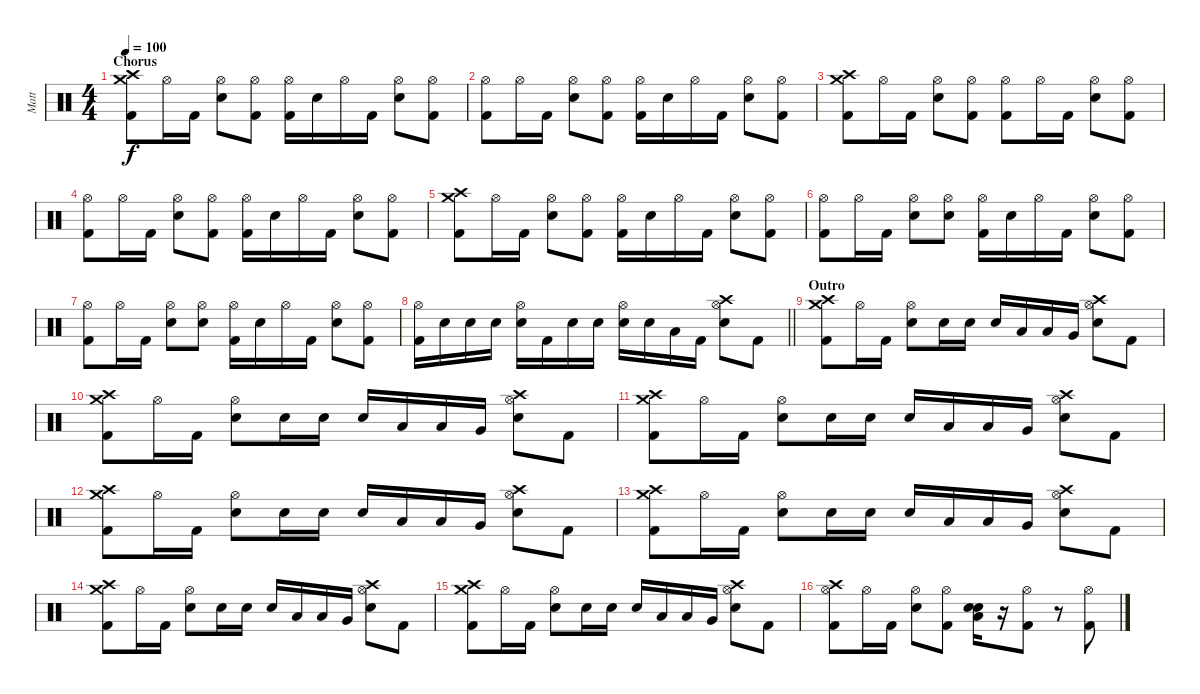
\track ("Matt" "Matt") {instrument percussion}
\staff {score}
\articulation defaults
\ts (4 4)
\section ("" "Chorus")
\tempo 100
\clef neutral
\ks c
("Crash medium (hit)" "Crash high (hit)" "Kick (hit) 2").8{dy f} "Hi-Hat (open)".16 "Kick (hit) 2".16 ("Hi-Hat (open)" "Snare (hit) 2").8 ("Hi-Hat (open)" "Kick (hit) 2").8 ("Hi-Hat (open)" "Kick (hit) 2").16 "Snare (hit) 2".16 "Hi-Hat (open)".16 "Kick (hit) 2".16 ("Hi-Hat (open)" "Snare (hit) 2").8 ("Hi-Hat (open)" "Kick (hit) 2").8 |
("Hi-Hat (open)" "Kick (hit) 2").8 "Hi-Hat (open)".16 "Kick (hit) 2".16 ("Hi-Hat (open)" "Snare (hit) 2").8 ("Hi-Hat (open)" "Kick (hit) 2").8 ("Hi-Hat (open)" "Kick (hit) 2").16 "Snare (hit) 2".16 "Hi-Hat (open)".16 "Kick (hit) 2".16 ("Hi-Hat (open)" "Snare (hit) 2").8 ("Hi-Hat (open)" "Kick (hit) 2").8 |
("Crash medium (hit)" "Crash high (hit)" "Kick (hit) 2").8 "Hi-Hat (open)".16 "Kick (hit) 2".16 ("Hi-Hat (open)" "Snare (hit) 2").8 ("Hi-Hat (open)" "Kick (hit) 2").8 ("Hi-Hat (open)" "Kick (hit) 2").8 "Hi-Hat (open)".16 "Kick (hit) 2".16 ("Hi-Hat (open)" "Snare (hit) 2").8 ("Hi-Hat (open)" "Kick (hit) 2").8 |
("Hi-Hat (open)" "Kick (hit) 2").8 "Hi-Hat (open)".16 "Kick (hit) 2".16 ("Hi-Hat (open)" "Snare (hit) 2").8 ("Hi-Hat (open)" "Kick (hit) 2").8 ("Hi-Hat (open)" "Kick (hit) 2").16 "Snare (hit) 2".16 "Hi-Hat (open)".16 "Kick (hit) 2".16 ("Hi-Hat (open)" "Snare (hit) 2").8 ("Hi-Hat (open)" "Kick (hit) 2").8 |
("Crash medium (hit)" "Crash high (hit)" "Kick (hit) 2").8 "Hi-Hat (open)".16 "Kick (hit) 2".16 ("Hi-Hat (open)" "Snare (hit) 2").8 ("Hi-Hat (open)" "Kick (hit) 2").8 ("Hi-Hat (open)" "Kick (hit) 2").16 "Snare (hit) 2".16 "Hi-Hat (open)".16 "Kick (hit) 2".16 ("Hi-Hat (open)" "Snare (hit) 2").8 ("Hi-Hat (open)" "Kick (hit) 2").8 |
("Hi-Hat (open)" "Kick (hit) 2").8 "Hi-Hat (open)".16 "Kick (hit) 2".16 ("Hi-Hat (open)" "Snare (hit) 2").8 ("Hi-Hat (open)" "Snare (hit) 2").8 ("Hi-Hat (open)" "Kick (hit) 2").16 "Snare (hit) 2".16 "Hi-Hat (open)".16 "Kick (hit) 2".16 ("Hi-Hat (open)" "Snare (hit) 2").8 ("Hi-Hat (open)" "Kick (hit) 2").8 |
("Hi-Hat (open)" "Kick (hit) 2").8 "Hi-Hat (open)".16 "Kick (hit) 2".16 ("Hi-Hat (open)" "Snare (hit) 2").8 ("Hi-Hat (open)" "Snare (hit) 2").8 ("Hi-Hat (open)" "Kick (hit) 2").16 "Snare (hit) 2".16 "Hi-Hat (open)".16 "Kick (hit) 2".16 ("Hi-Hat (open)" "Snare (hit) 2").8 ("Hi-Hat (open)" "Kick (hit) 2").8 |
\barLineRight lightlight
("Hi-Hat (open)" "Kick (hit) 2").16 "Snare (hit) 2".16 "Snare (hit) 2".16 "Snare (hit) 2".16 ("Hi-Hat (open)" "Snare (hit) 2").16 "Kick (hit) 2".16 "Snare (hit) 2".16 "Snare (hit) 2".16 ("Hi-Hat (open)" "Snare (hit) 2").16 "Snare (hit) 2".16 "Low Tom (hit)".16 "Kick (hit) 2".16 ("Crash high (hit)" "Hi-Hat (open)" "Snare (hit) 2").8 "Kick (hit) 2".8 |
\section ("" "Outro")
("Crash medium (hit)" "Crash high (hit)" "Kick (hit) 2").8 "Hi-Hat (open)".16 "Kick (hit) 2".16 ("Hi-Hat (open)" "Snare (hit) 2").8 "Snare (hit) 2".16 "Snare (hit) 2".16 "Snare (hit) 2".16 "Low Tom (hit)".16 "Low Tom (hit)".16 "Very Low Tom (hit)".16 ("Crash high (hit)" "Hi-Hat (open)" "Snare (hit) 2").8 "Kick (hit) 2".8 |
("Crash medium (hit)" "Crash high (hit)" "Kick (hit) 2").8 "Hi-Hat (open)".16 "Kick (hit) 2".16 ("Hi-Hat (open)" "Snare (hit) 2").8 "Snare (hit) 2".16 "Snare (hit) 2".16 "Snare (hit) 2".16 "Low Tom (hit)".16 "Low Tom (hit)".16 "Very Low Tom (hit)".16 ("Crash high (hit)" "Hi-Hat (open)" "Snare (hit) 2").8 "Kick (hit) 2".8 |
("Crash medium (hit)" "Crash high (hit)" "Kick (hit) 2").8 "Hi-Hat (open)".16 "Kick (hit) 2".16 ("Hi-Hat (open)" "Snare (hit) 2").8 "Snare (hit) 2".16 "Snare (hit) 2".16 "Snare (hit) 2".16 "Low Tom (hit)".16 "Low Tom (hit)".16 "Very Low Tom (hit)".16 ("Crash high (hit)" "Hi-Hat (open)" "Snare (hit) 2").8 "Kick (hit) 2".8 |
("Crash medium (hit)" "Crash high (hit)" "Kick (hit) 2").8 "Hi-Hat (open)".16 "Kick (hit) 2".16 ("Hi-Hat (open)" "Snare (hit) 2").8 "Snare (hit) 2".16 "Snare (hit) 2".16 "Snare (hit) 2".16 "Low Tom (hit)".16 "Low Tom (hit)".16 "Very Low Tom (hit)".16 ("Crash high (hit)" "Hi-Hat (open)" "Snare (hit) 2").8 "Kick (hit) 2".8 |
("Crash medium (hit)" "Crash high (hit)" "Kick (hit) 2").8 "Hi-Hat (open)".16 "Kick (hit) 2".16 ("Hi-Hat (open)" "Snare (hit) 2").8 "Snare (hit) 2".16 "Snare (hit) 2".16 "Snare (hit) 2".16 "Low Tom (hit)".16 "Low Tom (hit)".16 "Very Low Tom (hit)".16 ("Crash high (hit)" "Hi-Hat (open)" "Snare (hit) 2").8 "Kick (hit) 2".8 |
("Crash medium (hit)" "Crash high (hit)" "Kick (hit) 2").8 "Hi-Hat (open)".16 "Kick (hit) 2".16 ("Hi-Hat (open)" "Snare (hit) 2").8 "Snare (hit) 2".16 "Snare (hit) 2".16 "Snare (hit) 2".16 "Low Tom (hit)".16 "Low Tom (hit)".16 "Very Low Tom (hit)".16 ("Crash high (hit)" "Hi-Hat (open)" "Snare (hit) 2").8 "Kick (hit) 2".8 |
("Crash medium (hit)" "Crash high (hit)" "Kick (hit) 2").8 "Hi-Hat (open)".16 "Kick (hit) 2".16 ("Hi-Hat (open)" "Snare (hit) 2").8 "Snare (hit) 2".16 "Snare (hit) 2".16 "Snare (hit) 2".16 "Low Tom (hit)".16 "Low Tom (hit)".16 "Very Low Tom (hit)".16 ("Crash high (hit)" "Hi-Hat (open)" "Snare (hit) 2").8 "Kick (hit) 2".8 |
("Crash high (hit)" "Hi-Hat (open)" "Kick (hit) 2").8 "Hi-Hat (open)".16 "Kick (hit) 2".16 ("Hi-Hat (open)" "Snare (hit) 2").8 ("Hi-Hat (open)" "Kick (hit) 2").8 ("Low Tom (hit)" "Snare (hit) 2" "Snare (hit) 2").16 r.16 ("Hi-Hat (open)" "Kick (hit) 2").8 r.8 ("Hi-Hat (open)" "Kick (hit) 2").8
